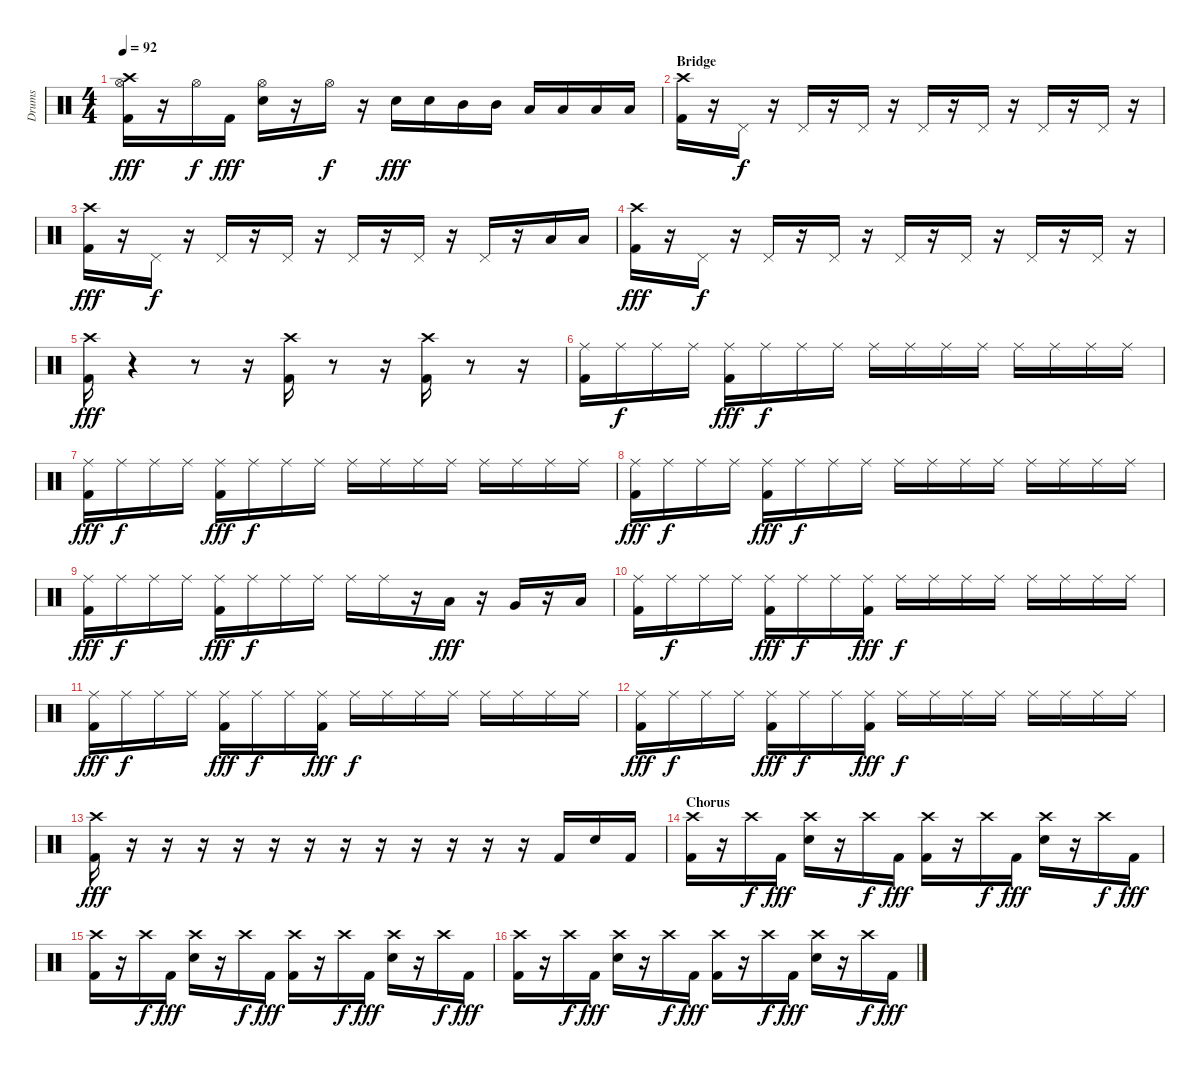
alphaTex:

\track ("Drums" "Drums") {instrument percussion}
\staff {score}
\articulation defaults
\ts (4 4)
\tempo 92
\clef neutral
\ks c
("Crash high (hit)" "Hi-Hat (open)" "Kick (hit) 2").16{dy fff} r.16 "Hi-Hat (open)".16{dy f} "Kick (hit) 2".16{dy fff} ("Hi-Hat (open)" "Snare (hit) 2").16 r.16 "Hi-Hat (open)".16{dy f} r.16 "Electric Snare (hit)".16{dy fff} "Electric Snare (hit)".16 "Mid Tom (hit)".16 "Mid Tom (hit)".16 "Low Tom (hit)".16 "Low Tom (hit)".16 "Low Floor Tom (hit)".16 "Low Floor Tom (hit)".16 |
\section ("" "Bridge")
("Crash high (hit)" "Kick (hit) 2").16 r.16 "Pedal Hi-Hat (hit)".16{dy f} r.16 "Pedal Hi-Hat (hit)".16 r.16 "Pedal Hi-Hat (hit)".16 r.16 "Pedal Hi-Hat (hit)".16 r.16 "Pedal Hi-Hat (hit)".16 r.16 "Pedal Hi-Hat (hit)".16 r.16 "Pedal Hi-Hat (hit)".16 r.16 |
("Crash high (hit)" "Kick (hit) 2").16{dy fff} r.16 "Pedal Hi-Hat (hit)".16{dy f} r.16 "Pedal Hi-Hat (hit)".16 r.16 "Pedal Hi-Hat (hit)".16 r.16 "Pedal Hi-Hat (hit)".16 r.16 "Pedal Hi-Hat (hit)".16 r.16 "Pedal Hi-Hat (hit)".16 r.16 "Low Floor Tom (hit)".16 "Low Floor Tom (hit)".16 |
("Crash high (hit)" "Kick (hit) 2").16{dy fff} r.16 "Pedal Hi-Hat (hit)".16{dy f} r.16 "Pedal Hi-Hat (hit)".16 r.16 "Pedal Hi-Hat (hit)".16 r.16 "Pedal Hi-Hat (hit)".16 r.16 "Pedal Hi-Hat (hit)".16 r.16 "Pedal Hi-Hat (hit)".16 r.16 "Pedal Hi-Hat (hit)".16 r.16 |
("Crash high (hit)" "Kick (hit) 2").16{dy fff} r.4 r.8 r.16 ("Crash high (hit)" "Kick (hit) 2").16 r.8 r.16 ("Crash high (hit)" "Kick (hit) 2").16 r.8 r.16 |
("Ride (middle)" "Kick (hit) 2").16 "Ride (middle)".16{dy f} "Ride (middle)".16 "Ride (middle)".16 ("Ride (middle)" "Kick (hit) 2").16{dy fff} "Ride (middle)".16{dy f} "Ride (middle)".16 "Ride (middle)".16 "Ride (middle)".16 "Ride (middle)".16 "Ride (middle)".16 "Ride (middle)".16 "Ride (middle)".16 "Ride (middle)".16 "Ride (middle)".16 "Ride (middle)".16 |
("Ride (middle)" "Kick (hit) 2").16{dy fff} "Ride (middle)".16{dy f} "Ride (middle)".16 "Ride (middle)".16 ("Ride (middle)" "Kick (hit) 2").16{dy fff} "Ride (middle)".16{dy f} "Ride (middle)".16 "Ride (middle)".16 "Ride (middle)".16 "Ride (middle)".16 "Ride (middle)".16 "Ride (middle)".16 "Ride (middle)".16 "Ride (middle)".16 "Ride (middle)".16 "Ride (middle)".16 |
("Ride (middle)" "Kick (hit) 2").16{dy fff} "Ride (middle)".16{dy f} "Ride (middle)".16 "Ride (middle)".16 ("Ride (middle)" "Kick (hit) 2").16{dy fff} "Ride (middle)".16{dy f} "Ride (middle)".16 "Ride (middle)".16 "Ride (middle)".16 "Ride (middle)".16 "Ride (middle)".16 "Ride (middle)".16 "Ride (middle)".16 "Ride (middle)".16 "Ride (middle)".16 "Ride (middle)".16 |
("Ride (middle)" "Kick (hit) 2").16{dy fff} "Ride (middle)".16{dy f} "Ride (middle)".16 "Ride (middle)".16 ("Ride (middle)" "Kick (hit) 2").16{dy fff} "Ride (middle)".16{dy f} "Ride (middle)".16 "Ride (middle)".16 "Ride (middle)".16 "Ride (middle)".16 r.16 "Low Tom (hit)".16{dy fff} r.16 "Very Low Tom (hit)".16 r.16 "Low Floor Tom (hit)".16 |
("Ride (middle)" "Kick (hit) 2").16 "Ride (middle)".16{dy f} "Ride (middle)".16 "Ride (middle)".16 ("Ride (middle)" "Kick (hit) 2").16{dy fff} "Ride (middle)".16{dy f} "Ride (middle)".16 ("Ride (middle)" "Kick (hit) 2").16{dy fff} "Ride (middle)".16{dy f} "Ride (middle)".16 "Ride (middle)".16 "Ride (middle)".16 "Ride (middle)".16 "Ride (middle)".16 "Ride (middle)".16 "Ride (middle)".16 |
("Ride (middle)" "Kick (hit) 2").16{dy fff} "Ride (middle)".16{dy f} "Ride (middle)".16 "Ride (middle)".16 ("Ride (middle)" "Kick (hit) 2").16{dy fff} "Ride (middle)".16{dy f} "Ride (middle)".16 ("Ride (middle)" "Kick (hit) 2").16{dy fff} "Ride (middle)".16{dy f} "Ride (middle)".16 "Ride (middle)".16 "Ride (middle)".16 "Ride (middle)".16 "Ride (middle)".16 "Ride (middle)".16 "Ride (middle)".16 |
("Ride (middle)" "Kick (hit) 2").16{dy fff} "Ride (middle)".16{dy f} "Ride (middle)".16 "Ride (middle)".16 ("Ride (middle)" "Kick (hit) 2").16{dy fff} "Ride (middle)".16{dy f} "Ride (middle)".16 ("Ride (middle)" "Kick (hit) 2").16{dy fff} "Ride (middle)".16{dy f} "Ride (middle)".16 "Ride (middle)".16 "Ride (middle)".16 "Ride (middle)".16 "Ride (middle)".16 "Ride (middle)".16 "Ride (middle)".16 |
("Crash high (hit)" "Kick (hit) 2").16{dy fff} r.16 r.16 r.16 r.16 r.16 r.16 r.16 r.16 r.16 r.16 r.16 r.16 "Kick (hit) 2".16 "Electric Snare (hit)".16 "Kick (hit) 2".16 |
\section ("" "Chorus")
("Crash high (hit)" "Kick (hit) 2").16 r.16 "Crash high (hit)".16{dy f} "Kick (hit) 2".16{dy fff} ("Crash high (hit)" "Electric Snare (hit)").16 r.16 "Crash high (hit)".16{dy f} "Kick (hit) 2".16{dy fff} ("Crash high (hit)" "Kick (hit) 2").16 r.16 "Crash high (hit)".16{dy f} "Kick (hit) 2".16{dy fff} ("Crash high (hit)" "Electric Snare (hit)").16 r.16 "Crash high (hit)".16{dy f} "Kick (hit) 2".16{dy fff} |
("Crash high (hit)" "Kick (hit) 2").16 r.16 "Crash high (hit)".16{dy f} "Kick (hit) 2".16{dy fff} ("Crash high (hit)" "Electric Snare (hit)").16 r.16 "Crash high (hit)".16{dy f} "Kick (hit) 2".16{dy fff} ("Crash high (hit)" "Kick (hit) 2").16 r.16 "Crash high (hit)".16{dy f} "Kick (hit) 2".16{dy fff} ("Crash high (hit)" "Electric Snare (hit)").16 r.16 "Crash high (hit)".16{dy f} "Kick (hit) 2".16{dy fff} |
("Crash high (hit)" "Kick (hit) 2").16 r.16 "Crash high (hit)".16{dy f} "Kick (hit) 2".16{dy fff} ("Crash high (hit)" "Electric Snare (hit)").16 r.16 "Crash high (hit)".16{dy f} "Kick (hit) 2".16{dy fff} ("Crash high (hit)" "Kick (hit) 2").16 r.16 "Crash high (hit)".16{dy f} "Kick (hit) 2".16{dy fff} ("Crash high (hit)" "Electric Snare (hit)").16 r.16 "Crash high (hit)".16{dy f} "Kick (hit) 2".16{dy fff}
